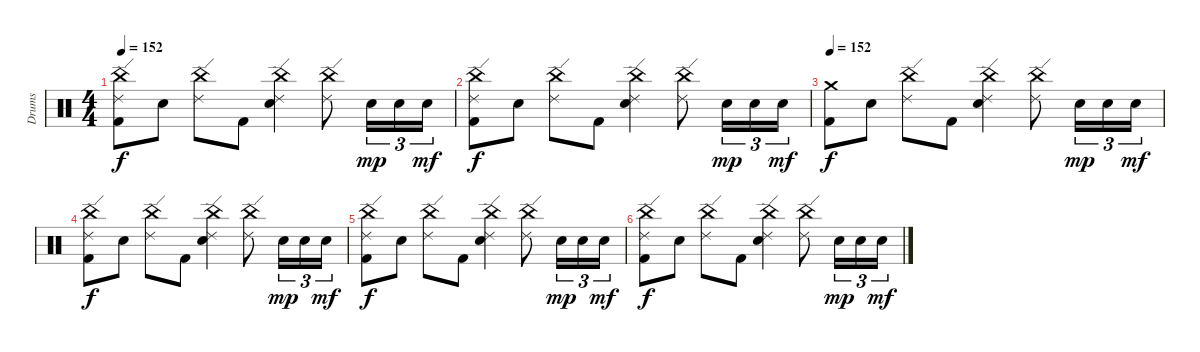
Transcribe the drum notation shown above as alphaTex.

\track ("Drums" "Drums") {instrument percussion}
\staff {score}
\articulation defaults
\ts (4 4)
\tempo 152
\clef neutral
\ks c
("China (hit)" "Ride (edge) 2" "Kick (hit) 2").8{dy f} "Snare (hit) 2".8 ("China (hit)" "Ride (edge) 2").8 "Kick (hit) 2".8 ("China (hit)" "Ride (edge) 2" "Snare (hit) 2").4 ("China (hit)" "Ride (edge) 2").8 "Snare (hit) 2".16{tu (3 2) dy mp} "Snare (hit) 2".16{tu (3 2)} "Snare (hit) 2".16{tu (3 2) dy mf} |
("China (hit)" "Ride (edge) 2" "Kick (hit) 2").8{dy f} "Snare (hit) 2".8 ("China (hit)" "Ride (edge) 2").8 "Kick (hit) 2".8 ("China (hit)" "Ride (edge) 2" "Snare (hit) 2").4 ("China (hit)" "Ride (edge) 2").8 "Snare (hit) 2".16{tu (3 2) dy mp} "Snare (hit) 2".16{tu (3 2)} "Snare (hit) 2".16{tu (3 2) dy mf} |
\tempo 152
("Crash medium (hit)" "Kick (hit) 2").8{dy f} "Snare (hit) 2".8 ("China (hit)" "Ride (edge) 2").8 "Kick (hit) 2".8 ("China (hit)" "Ride (edge) 2" "Snare (hit) 2").4 ("China (hit)" "Ride (edge) 2").8 "Snare (hit) 2".16{tu (3 2) dy mp} "Snare (hit) 2".16{tu (3 2)} "Snare (hit) 2".16{tu (3 2) dy mf} |
("China (hit)" "Ride (edge) 2" "Kick (hit) 2").8{dy f} "Snare (hit) 2".8 ("China (hit)" "Ride (edge) 2").8 "Kick (hit) 2".8 ("China (hit)" "Ride (edge) 2" "Snare (hit) 2").4 ("China (hit)" "Ride (edge) 2").8 "Snare (hit) 2".16{tu (3 2) dy mp} "Snare (hit) 2".16{tu (3 2)} "Snare (hit) 2".16{tu (3 2) dy mf} |
("China (hit)" "Ride (edge) 2" "Kick (hit) 2").8{dy f} "Snare (hit) 2".8 ("China (hit)" "Ride (edge) 2").8 "Kick (hit) 2".8 ("China (hit)" "Ride (edge) 2" "Snare (hit) 2").4 ("China (hit)" "Ride (edge) 2").8 "Snare (hit) 2".16{tu (3 2) dy mp} "Snare (hit) 2".16{tu (3 2)} "Snare (hit) 2".16{tu (3 2) dy mf} |
("China (hit)" "Ride (edge) 2" "Kick (hit) 2").8{dy f} "Snare (hit) 2".8 ("China (hit)" "Ride (edge) 2").8 "Kick (hit) 2".8 ("China (hit)" "Ride (edge) 2" "Snare (hit) 2").4 ("China (hit)" "Ride (edge) 2").8 "Snare (hit) 2".16{tu (3 2) dy mp} "Snare (hit) 2".16{tu (3 2)} "Snare (hit) 2".16{tu (3 2) dy mf}
